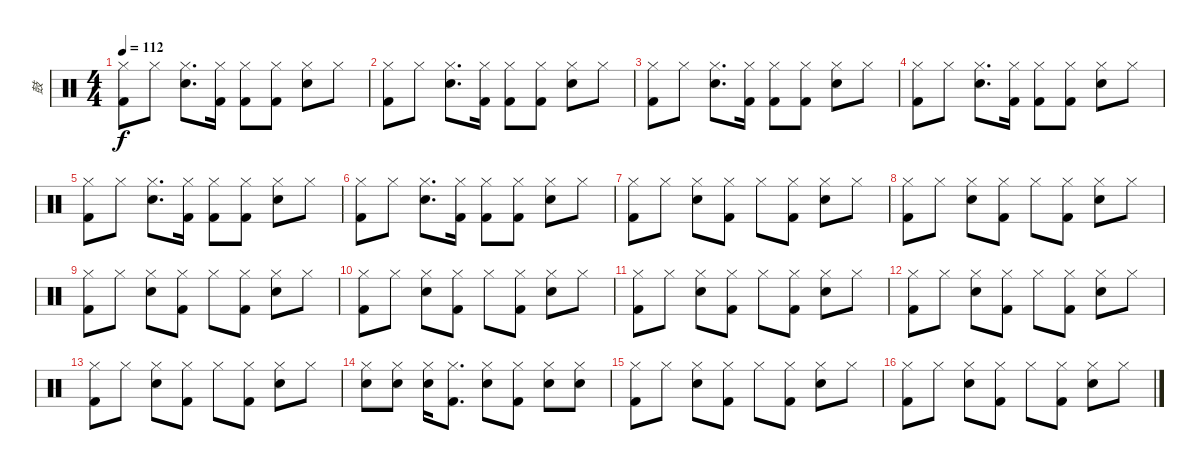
\track ("鼓" "鼓") {instrument percussion}
\staff {score}
\articulation defaults
\ts (4 4)
\tempo 112
\clef neutral
\ks c
("Hi-Hat (closed)" "Kick (hit) 2").8{dy f} "Hi-Hat (closed)".8 ("Hi-Hat (closed)" "Snare (hit) 2").8{d} ("Hi-Hat (closed)" "Kick (hit) 2").16 ("Hi-Hat (closed)" "Kick (hit) 2").8 ("Hi-Hat (closed)" "Kick (hit) 2").8 ("Hi-Hat (closed)" "Snare (hit) 2").8 "Hi-Hat (closed)".8 |
("Hi-Hat (closed)" "Kick (hit) 2").8 "Hi-Hat (closed)".8 ("Hi-Hat (closed)" "Snare (hit) 2").8{d} ("Hi-Hat (closed)" "Kick (hit) 2").16 ("Hi-Hat (closed)" "Kick (hit) 2").8 ("Hi-Hat (closed)" "Kick (hit) 2").8 ("Hi-Hat (closed)" "Snare (hit) 2").8 "Hi-Hat (closed)".8 |
("Hi-Hat (closed)" "Kick (hit) 2").8 "Hi-Hat (closed)".8 ("Hi-Hat (closed)" "Snare (hit) 2").8{d} ("Hi-Hat (closed)" "Kick (hit) 2").16 ("Hi-Hat (closed)" "Kick (hit) 2").8 ("Hi-Hat (closed)" "Kick (hit) 2").8 ("Hi-Hat (closed)" "Snare (hit) 2").8 "Hi-Hat (closed)".8 |
("Hi-Hat (closed)" "Kick (hit) 2").8 "Hi-Hat (closed)".8 ("Hi-Hat (closed)" "Snare (hit) 2").8{d} ("Hi-Hat (closed)" "Kick (hit) 2").16 ("Hi-Hat (closed)" "Kick (hit) 2").8 ("Hi-Hat (closed)" "Kick (hit) 2").8 ("Hi-Hat (closed)" "Snare (hit) 2").8 "Hi-Hat (closed)".8 |
("Hi-Hat (closed)" "Kick (hit) 2").8 "Hi-Hat (closed)".8 ("Hi-Hat (closed)" "Snare (hit) 2").8{d} ("Hi-Hat (closed)" "Kick (hit) 2").16 ("Hi-Hat (closed)" "Kick (hit) 2").8 ("Hi-Hat (closed)" "Kick (hit) 2").8 ("Hi-Hat (closed)" "Snare (hit) 2").8 "Hi-Hat (closed)".8 |
("Hi-Hat (closed)" "Kick (hit) 2").8 "Hi-Hat (closed)".8 ("Hi-Hat (closed)" "Snare (hit) 2").8{d} ("Hi-Hat (closed)" "Kick (hit) 2").16 ("Hi-Hat (closed)" "Kick (hit) 2").8 ("Hi-Hat (closed)" "Kick (hit) 2").8 ("Hi-Hat (closed)" "Snare (hit) 2").8 "Hi-Hat (closed)".8 |
("Hi-Hat (closed)" "Kick (hit) 2").8 "Hi-Hat (closed)".8 ("Hi-Hat (closed)" "Snare (hit) 2").8 ("Hi-Hat (closed)" "Kick (hit) 2").8 "Hi-Hat (closed)".8 ("Hi-Hat (closed)" "Kick (hit) 2").8 ("Hi-Hat (closed)" "Snare (hit) 2").8 "Hi-Hat (closed)".8 |
("Hi-Hat (closed)" "Kick (hit) 2").8 "Hi-Hat (closed)".8 ("Hi-Hat (closed)" "Snare (hit) 2").8 ("Hi-Hat (closed)" "Kick (hit) 2").8 "Hi-Hat (closed)".8 ("Hi-Hat (closed)" "Kick (hit) 2").8 ("Hi-Hat (closed)" "Snare (hit) 2").8 "Hi-Hat (closed)".8 |
("Hi-Hat (closed)" "Kick (hit) 2").8 "Hi-Hat (closed)".8 ("Hi-Hat (closed)" "Snare (hit) 2").8 ("Hi-Hat (closed)" "Kick (hit) 2").8 "Hi-Hat (closed)".8 ("Hi-Hat (closed)" "Kick (hit) 2").8 ("Hi-Hat (closed)" "Snare (hit) 2").8 "Hi-Hat (closed)".8 |
("Hi-Hat (closed)" "Kick (hit) 2").8 "Hi-Hat (closed)".8 ("Hi-Hat (closed)" "Snare (hit) 2").8 ("Hi-Hat (closed)" "Kick (hit) 2").8 "Hi-Hat (closed)".8 ("Hi-Hat (closed)" "Kick (hit) 2").8 ("Hi-Hat (closed)" "Snare (hit) 2").8 "Hi-Hat (closed)".8 |
("Hi-Hat (closed)" "Kick (hit) 2").8 "Hi-Hat (closed)".8 ("Hi-Hat (closed)" "Snare (hit) 2").8 ("Hi-Hat (closed)" "Kick (hit) 2").8 "Hi-Hat (closed)".8 ("Hi-Hat (closed)" "Kick (hit) 2").8 ("Hi-Hat (closed)" "Snare (hit) 2").8 "Hi-Hat (closed)".8 |
("Hi-Hat (closed)" "Kick (hit) 2").8 "Hi-Hat (closed)".8 ("Hi-Hat (closed)" "Snare (hit) 2").8 ("Hi-Hat (closed)" "Kick (hit) 2").8 "Hi-Hat (closed)".8 ("Hi-Hat (closed)" "Kick (hit) 2").8 ("Hi-Hat (closed)" "Snare (hit) 2").8 "Hi-Hat (closed)".8 |
("Hi-Hat (closed)" "Kick (hit) 2").8 "Hi-Hat (closed)".8 ("Hi-Hat (closed)" "Snare (hit) 2").8 ("Hi-Hat (closed)" "Kick (hit) 2").8 "Hi-Hat (closed)".8 ("Hi-Hat (closed)" "Kick (hit) 2").8 ("Hi-Hat (closed)" "Snare (hit) 2").8 "Hi-Hat (closed)".8 |
("Hi-Hat (closed)" "Snare (hit) 2").8 ("Hi-Hat (closed)" "Snare (hit) 2").8 ("Hi-Hat (closed)" "Snare (hit) 2").16 ("Hi-Hat (closed)" "Kick (hit) 2").8{d} ("Hi-Hat (closed)" "Snare (hit) 2").8 ("Hi-Hat (closed)" "Kick (hit) 2").8 ("Hi-Hat (closed)" "Snare (hit) 2").8 ("Hi-Hat (closed)" "Snare (hit) 2").8 |
("Hi-Hat (closed)" "Kick (hit) 2").8 "Hi-Hat (closed)".8 ("Hi-Hat (closed)" "Snare (hit) 2").8 ("Hi-Hat (closed)" "Kick (hit) 2").8 "Hi-Hat (closed)".8 ("Hi-Hat (closed)" "Kick (hit) 2").8 ("Hi-Hat (closed)" "Snare (hit) 2").8 "Hi-Hat (closed)".8 |
("Hi-Hat (closed)" "Kick (hit) 2").8 "Hi-Hat (closed)".8 ("Hi-Hat (closed)" "Snare (hit) 2").8 ("Hi-Hat (closed)" "Kick (hit) 2").8 "Hi-Hat (closed)".8 ("Hi-Hat (closed)" "Kick (hit) 2").8 ("Hi-Hat (closed)" "Snare (hit) 2").8 "Hi-Hat (closed)".8
